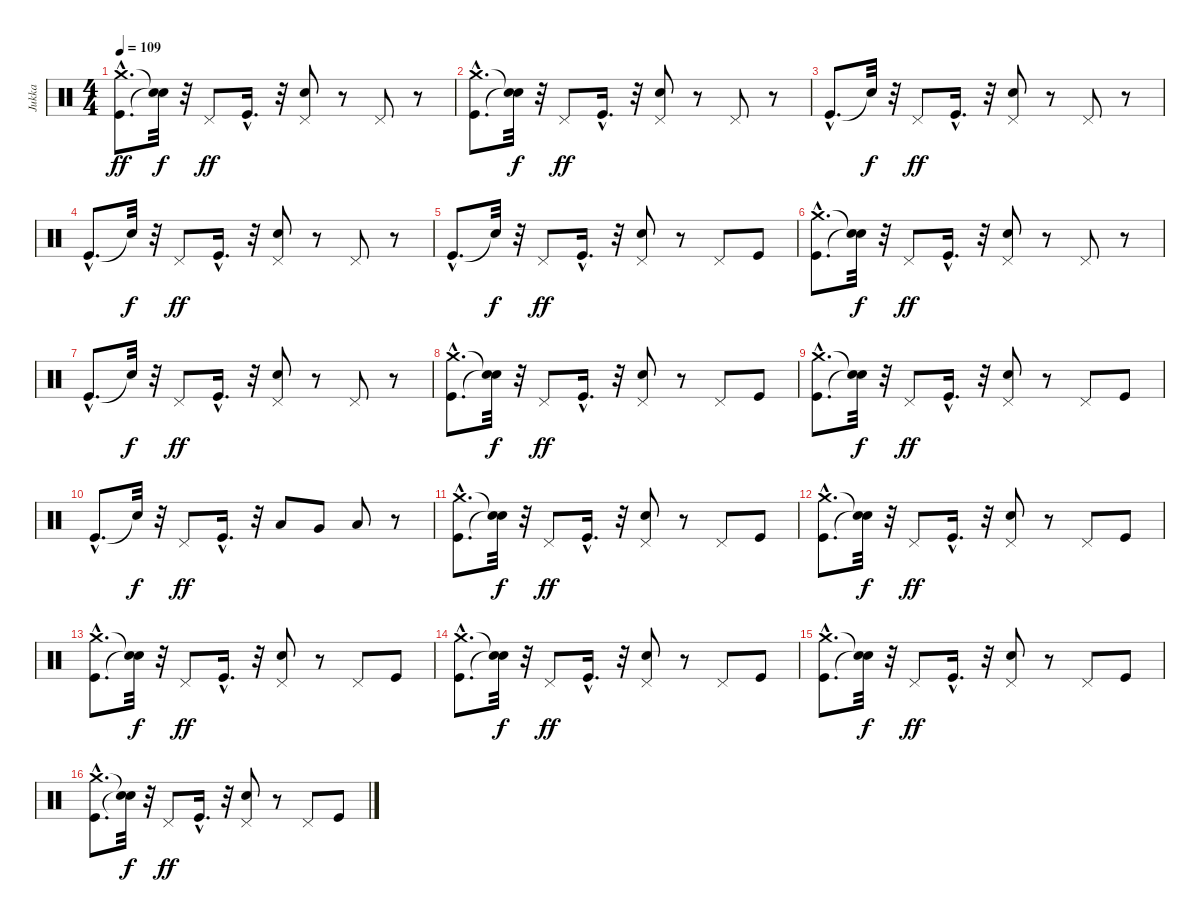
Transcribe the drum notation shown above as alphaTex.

\track ("Jukka" "Jukka") {instrument percussion}
\staff {score}
\articulation defaults
\ts (4 4)
\tempo 109
\clef neutral
\ks c
("Kick (hit)"{hac} "Crash medium (hit)"{hac}).8{d dy ff} ("Snare (hit)"{t} "Snare (hit)"{t}).32{dy f} r.32 "Pedal Hi-Hat (hit)".8{dy ff} "Kick (hit)"{hac}.16{d} r.32 ("Electric Snare (hit)" "Pedal Hi-Hat (hit)").8 r.8 "Pedal Hi-Hat (hit)".8 r.8 |
("Kick (hit)"{hac} "Crash medium (hit)"{hac}).8{d} ("Snare (hit)"{t} "Snare (hit)"{t}).32{dy f} r.32 "Pedal Hi-Hat (hit)".8{dy ff} "Kick (hit)"{hac}.16{d} r.32 ("Electric Snare (hit)" "Pedal Hi-Hat (hit)").8 r.8 "Pedal Hi-Hat (hit)".8 r.8 |
"Kick (hit)"{hac}.8{d} "Snare (hit)"{t}.32{dy f} r.32 "Pedal Hi-Hat (hit)".8{dy ff} "Kick (hit)"{hac}.16{d} r.32 ("Electric Snare (hit)" "Pedal Hi-Hat (hit)").8 r.8 "Pedal Hi-Hat (hit)".8 r.8 |
"Kick (hit)"{hac}.8{d} "Snare (hit)"{t}.32{dy f} r.32 "Pedal Hi-Hat (hit)".8{dy ff} "Kick (hit)"{hac}.16{d} r.32 ("Electric Snare (hit)" "Pedal Hi-Hat (hit)").8 r.8 "Pedal Hi-Hat (hit)".8 r.8 |
"Kick (hit)"{hac}.8{d} "Snare (hit)"{t}.32{dy f} r.32 "Pedal Hi-Hat (hit)".8{dy ff} "Kick (hit)"{hac}.16{d} r.32 ("Electric Snare (hit)" "Pedal Hi-Hat (hit)").8 r.8 "Pedal Hi-Hat (hit)".8 "Kick (hit)".8 |
("Kick (hit)"{hac} "Crash medium (hit)"{hac}).8{d} ("Snare (hit)"{t} "Snare (hit)"{t}).32{dy f} r.32 "Pedal Hi-Hat (hit)".8{dy ff} "Kick (hit)"{hac}.16{d} r.32 ("Electric Snare (hit)" "Pedal Hi-Hat (hit)").8 r.8 "Pedal Hi-Hat (hit)".8 r.8 |
"Kick (hit)"{hac}.8{d} "Snare (hit)"{t}.32{dy f} r.32 "Pedal Hi-Hat (hit)".8{dy ff} "Kick (hit)"{hac}.16{d} r.32 ("Electric Snare (hit)" "Pedal Hi-Hat (hit)").8 r.8 "Pedal Hi-Hat (hit)".8 r.8 |
("Kick (hit)"{hac} "Crash medium (hit)"{hac}).8{d} ("Snare (hit)"{t} "Snare (hit)"{t}).32{dy f} r.32 "Pedal Hi-Hat (hit)".8{dy ff} "Kick (hit)"{hac}.16{d} r.32 ("Electric Snare (hit)" "Pedal Hi-Hat (hit)").8 r.8 "Pedal Hi-Hat (hit)".8 "Kick (hit)".8 |
("Kick (hit)"{hac} "Crash medium (hit)"{hac}).8{d} ("Snare (hit)"{t} "Snare (hit)"{t}).32{dy f} r.32 "Pedal Hi-Hat (hit)".8{dy ff} "Kick (hit)"{hac}.16{d} r.32 ("Electric Snare (hit)" "Pedal Hi-Hat (hit)").8 r.8 "Pedal Hi-Hat (hit)".8 "Kick (hit)".8 |
"Kick (hit)"{hac}.8{d} "Snare (hit)"{t}.32{dy f} r.32 "Pedal Hi-Hat (hit)".8{dy ff} "Kick (hit)"{hac}.16{d} r.32 "Low Tom (hit)".8 "Very Low Tom (hit)".8 "Low Floor Tom (hit)".8 r.8 |
("Kick (hit)"{hac} "Crash medium (hit)"{hac}).8{d} ("Snare (hit)"{t} "Snare (hit)"{t}).32{dy f} r.32 "Pedal Hi-Hat (hit)".8{dy ff} "Kick (hit)"{hac}.16{d} r.32 ("Electric Snare (hit)" "Pedal Hi-Hat (hit)").8 r.8 "Pedal Hi-Hat (hit)".8 "Kick (hit)".8 |
("Kick (hit)"{hac} "Crash medium (hit)"{hac}).8{d} ("Snare (hit)"{t} "Snare (hit)"{t}).32{dy f} r.32 "Pedal Hi-Hat (hit)".8{dy ff} "Kick (hit)"{hac}.16{d} r.32 ("Electric Snare (hit)" "Pedal Hi-Hat (hit)").8 r.8 "Pedal Hi-Hat (hit)".8 "Kick (hit)".8 |
("Kick (hit)"{hac} "Crash medium (hit)"{hac}).8{d} ("Snare (hit)"{t} "Snare (hit)"{t}).32{dy f} r.32 "Pedal Hi-Hat (hit)".8{dy ff} "Kick (hit)"{hac}.16{d} r.32 ("Electric Snare (hit)" "Pedal Hi-Hat (hit)").8 r.8 "Pedal Hi-Hat (hit)".8 "Kick (hit)".8 |
("Kick (hit)"{hac} "Crash medium (hit)"{hac}).8{d} ("Snare (hit)"{t} "Snare (hit)"{t}).32{dy f} r.32 "Pedal Hi-Hat (hit)".8{dy ff} "Kick (hit)"{hac}.16{d} r.32 ("Electric Snare (hit)" "Pedal Hi-Hat (hit)").8 r.8 "Pedal Hi-Hat (hit)".8 "Kick (hit)".8 |
("Kick (hit)"{hac} "Crash medium (hit)"{hac}).8{d} ("Snare (hit)"{t} "Snare (hit)"{t}).32{dy f} r.32 "Pedal Hi-Hat (hit)".8{dy ff} "Kick (hit)"{hac}.16{d} r.32 ("Electric Snare (hit)" "Pedal Hi-Hat (hit)").8 r.8 "Pedal Hi-Hat (hit)".8 "Kick (hit)".8 |
("Kick (hit)"{hac} "Crash medium (hit)"{hac}).8{d} ("Snare (hit)"{t} "Snare (hit)"{t}).32{dy f} r.32 "Pedal Hi-Hat (hit)".8{dy ff} "Kick (hit)"{hac}.16{d} r.32 ("Electric Snare (hit)" "Pedal Hi-Hat (hit)").8 r.8 "Pedal Hi-Hat (hit)".8 "Kick (hit)".8
